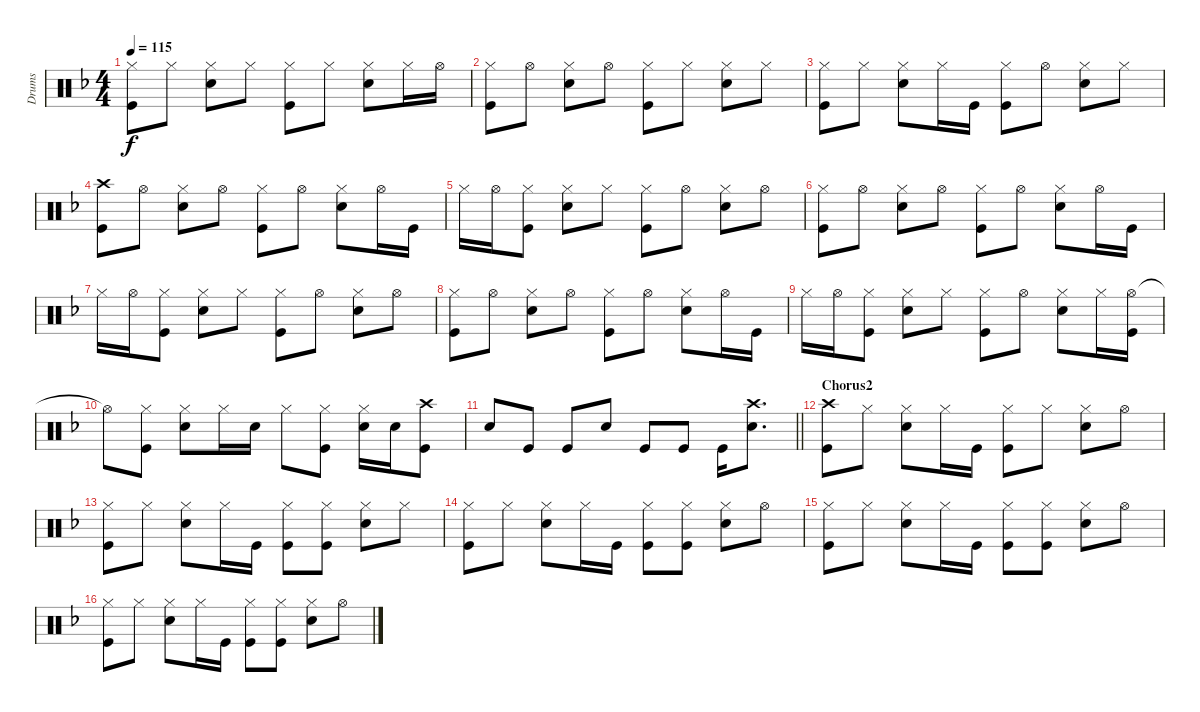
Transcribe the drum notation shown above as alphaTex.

\track ("Drums" "Drums") {instrument percussion}
\staff {score}
\articulation defaults
\ts (4 4)
\tempo 115
\clef neutral
\ks f
("Hi-Hat (closed)" "Kick (hit)").8{dy f} "Hi-Hat (closed)".8 ("Hi-Hat (closed)" "Snare (hit) 2").8 "Hi-Hat (closed)".8 ("Hi-Hat (closed)" "Kick (hit)").8 "Hi-Hat (closed)".8 ("Hi-Hat (closed)" "Snare (hit) 2").8 "Hi-Hat (closed)".16 "Hi-Hat (open)".16 |
("Hi-Hat (closed)" "Kick (hit)").8 "Hi-Hat (open)".8 ("Hi-Hat (closed)" "Snare (hit) 2").8 "Hi-Hat (open)".8 ("Hi-Hat (closed)" "Kick (hit)").8 "Hi-Hat (closed)".8 ("Hi-Hat (closed)" "Snare (hit) 2").8 "Hi-Hat (closed)".8 |
("Hi-Hat (closed)" "Kick (hit)").8 "Hi-Hat (closed)".8 ("Hi-Hat (closed)" "Snare (hit) 2").8 "Hi-Hat (closed)".16 "Kick (hit)".16 ("Hi-Hat (closed)" "Kick (hit)").8 "Hi-Hat (open)".8 ("Hi-Hat (closed)" "Snare (hit) 2").8 "Hi-Hat (closed)".8 |
("Crash high (hit)" "Kick (hit)").8 "Hi-Hat (open)".8 ("Snare (hit) 2" "Hi-Hat (closed)").8 "Hi-Hat (open)".8 ("Hi-Hat (closed)" "Kick (hit)").8 "Hi-Hat (open)".8 ("Hi-Hat (closed)" "Snare (hit) 2").8 "Hi-Hat (open)".16 "Kick (hit)".16 |
"Hi-Hat (closed)".16 "Hi-Hat (open)".16 ("Hi-Hat (closed)" "Kick (hit)").8 ("Hi-Hat (closed)" "Snare (hit) 2").8 "Hi-Hat (closed)".8 ("Hi-Hat (closed)" "Kick (hit)").8 "Hi-Hat (open)".8 ("Hi-Hat (closed)" "Snare (hit) 2").8 "Hi-Hat (open)".8 |
("Hi-Hat (closed)" "Kick (hit)").8 "Hi-Hat (open)".8 ("Snare (hit) 2" "Hi-Hat (closed)").8 "Hi-Hat (open)".8 ("Hi-Hat (closed)" "Kick (hit)").8 "Hi-Hat (open)".8 ("Hi-Hat (closed)" "Snare (hit) 2").8 "Hi-Hat (open)".16 "Kick (hit)".16 |
"Hi-Hat (closed)".16 "Hi-Hat (open)".16 ("Hi-Hat (closed)" "Kick (hit)").8 ("Hi-Hat (closed)" "Snare (hit) 2").8 "Hi-Hat (closed)".8 ("Hi-Hat (closed)" "Kick (hit)").8 "Hi-Hat (open)".8 ("Hi-Hat (closed)" "Snare (hit) 2").8 "Hi-Hat (open)".8 |
("Hi-Hat (closed)" "Kick (hit)").8 "Hi-Hat (open)".8 ("Snare (hit) 2" "Hi-Hat (closed)").8 "Hi-Hat (open)".8 ("Hi-Hat (closed)" "Kick (hit)").8 "Hi-Hat (open)".8 ("Hi-Hat (closed)" "Snare (hit) 2").8 "Hi-Hat (open)".16 "Kick (hit)".16 |
"Hi-Hat (closed)".16 "Hi-Hat (open)".16 ("Hi-Hat (closed)" "Kick (hit)").8 ("Hi-Hat (closed)" "Snare (hit) 2").8 "Hi-Hat (closed)".8 ("Hi-Hat (closed)" "Kick (hit)").8 "Hi-Hat (open)".8 ("Hi-Hat (closed)" "Snare (hit) 2").8 "Hi-Hat (closed)".16 ("Hi-Hat (open)" "Kick (hit)").16 |
"Hi-Hat (open)"{t}.8 ("Kick (hit)" "Hi-Hat (closed)").8 ("Hi-Hat (closed)" "Snare (hit) 2").8 "Hi-Hat (closed)".16 "Snare (hit) 2".16 "Hi-Hat (closed)".8 ("Hi-Hat (closed)" "Kick (hit)").8 ("Hi-Hat (closed)" "Snare (hit) 2").16 "Snare (hit) 2".16 ("Crash high (hit)" "Kick (hit)").8 |
\barLineRight lightlight "Snare (hit) 2".8 "Kick (hit)".8 "Kick (hit)".8 "Snare (hit) 2".8 "Kick (hit)".8 "Kick (hit)".8 "Kick (hit)".16
("Snare (hit) 2" "Crash high (hit)").8{d} |
\section ("" "Chorus2")
("Crash high (hit)" "Kick (hit)").8 "Hi-Hat (closed)".8 ("Snare (hit) 2" "Hi-Hat (closed)").8 "Hi-Hat (closed)".16 "Kick (hit)".16 ("Hi-Hat (closed)" "Kick (hit)").8 "Hi-Hat (closed)".8 ("Hi-Hat (closed)" "Snare (hit) 2").8 "Hi-Hat (open)".8 |
("Hi-Hat (closed)" "Kick (hit)").8 "Hi-Hat (closed)".8 ("Hi-Hat (closed)" "Snare (hit) 2").8 "Hi-Hat (closed)".16 "Kick (hit)".16 ("Hi-Hat (closed)" "Kick (hit)").8 ("Hi-Hat (closed)" "Kick (hit)").8 ("Hi-Hat (closed)" "Snare (hit) 2").8 "Hi-Hat (closed)".8 |
("Hi-Hat (closed)" "Kick (hit)").8 "Hi-Hat (closed)".8 ("Hi-Hat (closed)" "Snare (hit) 2").8 "Hi-Hat (closed)".16 "Kick (hit)".16 ("Hi-Hat (closed)" "Kick (hit)").8 ("Hi-Hat (closed)" "Kick (hit)").8 ("Hi-Hat (closed)" "Snare (hit) 2").8 "Hi-Hat (open)".8 |
("Hi-Hat (closed)" "Kick (hit)").8 "Hi-Hat (closed)".8 ("Hi-Hat (closed)" "Snare (hit) 2").8 "Hi-Hat (closed)".16 "Kick (hit)".16 ("Hi-Hat (closed)" "Kick (hit)").8 ("Hi-Hat (closed)" "Kick (hit)").8 ("Hi-Hat (closed)" "Snare (hit) 2").8 "Hi-Hat (open)".8 |
("Hi-Hat (closed)" "Kick (hit)").8 "Hi-Hat (closed)".8 ("Hi-Hat (closed)" "Snare (hit) 2").8 "Hi-Hat (closed)".16 "Kick (hit)".16 ("Hi-Hat (closed)" "Kick (hit)").8 ("Hi-Hat (closed)" "Kick (hit)").8 ("Hi-Hat (closed)" "Snare (hit) 2").8 "Hi-Hat (open)".8
